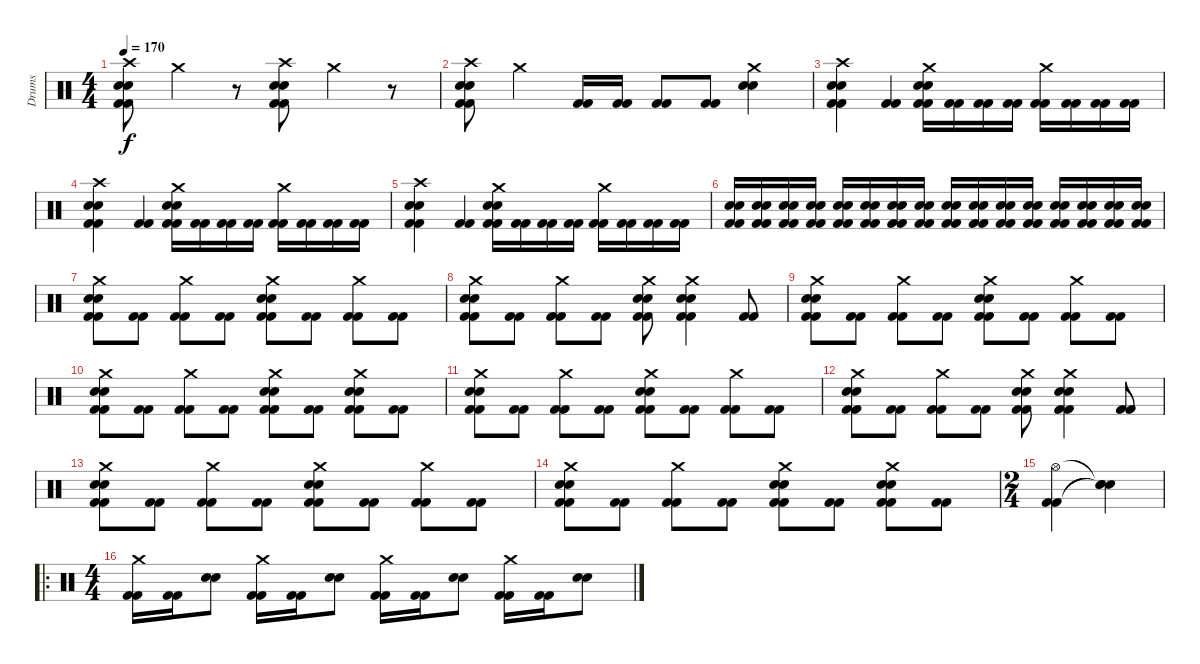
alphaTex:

\track ("Drums" "Drums") {instrument percussion}
\staff {score}
\articulation defaults
\ts (4 4)
\tempo 170
\clef neutral
\ks c
("Crash high (hit)" "Kick (hit) 2" "Kick (hit) 2" "Snare (hit) 2" "Snare (hit) 2").8{dy f} "Crash medium (hit)".4 r.8 ("Crash high (hit)" "Snare (hit) 2" "Snare (hit) 2" "Kick (hit) 2" "Kick (hit) 2").8 "Crash medium (hit)".4 r.8 |
("Snare (hit) 2" "Snare (hit) 2" "Crash high (hit)" "Kick (hit) 2" "Kick (hit) 2").8 "Crash medium (hit)".4 ("Kick (hit) 2" "Kick (hit) 2").16 ("Kick (hit) 2" "Kick (hit) 2").16 ("Kick (hit) 2" "Kick (hit) 2").8 ("Kick (hit) 2" "Kick (hit) 2").8 ("Crash medium (hit)" "Snare (hit) 2" "Snare (hit) 2").4 |
("Snare (hit) 2" "Snare (hit) 2" "Crash high (hit)" "Kick (hit) 2" "Kick (hit) 2").4 ("Kick (hit) 2" "Kick (hit) 2").4 ("Crash medium (hit)" "Snare (hit) 2" "Snare (hit) 2" "Kick (hit) 2" "Kick (hit) 2").16 ("Kick (hit) 2" "Kick (hit) 2").16 ("Kick (hit) 2" "Kick (hit) 2").16 ("Kick (hit) 2" "Kick (hit) 2").16 ("Crash medium (hit)" "Kick (hit) 2" "Kick (hit) 2").16 ("Kick (hit) 2" "Kick (hit) 2").16 ("Kick (hit) 2" "Kick (hit) 2").16 ("Kick (hit) 2" "Kick (hit) 2").16 |
("Snare (hit) 2" "Snare (hit) 2" "Crash high (hit)" "Kick (hit) 2" "Kick (hit) 2").4 ("Kick (hit) 2" "Kick (hit) 2").4 ("Crash medium (hit)" "Snare (hit) 2" "Snare (hit) 2" "Kick (hit) 2" "Kick (hit) 2").16 ("Kick (hit) 2" "Kick (hit) 2").16 ("Kick (hit) 2" "Kick (hit) 2").16 ("Kick (hit) 2" "Kick (hit) 2").16 ("Crash medium (hit)" "Kick (hit) 2" "Kick (hit) 2").16 ("Kick (hit) 2" "Kick (hit) 2").16 ("Kick (hit) 2" "Kick (hit) 2").16 ("Kick (hit) 2" "Kick (hit) 2").16 |
("Snare (hit) 2" "Snare (hit) 2" "Crash high (hit)" "Kick (hit) 2" "Kick (hit) 2").4 ("Kick (hit) 2" "Kick (hit) 2").4 ("Crash medium (hit)" "Snare (hit) 2" "Snare (hit) 2" "Kick (hit) 2" "Kick (hit) 2").16 ("Kick (hit) 2" "Kick (hit) 2").16 ("Kick (hit) 2" "Kick (hit) 2").16 ("Kick (hit) 2" "Kick (hit) 2").16 ("Crash medium (hit)" "Kick (hit) 2" "Kick (hit) 2").16 ("Kick (hit) 2" "Kick (hit) 2").16 ("Kick (hit) 2" "Kick (hit) 2").16 ("Kick (hit) 2" "Kick (hit) 2").16 |
("Snare (hit) 2" "Snare (hit) 2" "Kick (hit) 2" "Kick (hit) 2").16 ("Snare (hit) 2" "Snare (hit) 2" "Kick (hit) 2" "Kick (hit) 2").16 ("Snare (hit) 2" "Snare (hit) 2" "Kick (hit) 2" "Kick (hit) 2").16 ("Snare (hit) 2" "Snare (hit) 2" "Kick (hit) 2" "Kick (hit) 2").16 ("Snare (hit) 2" "Snare (hit) 2" "Kick (hit) 2" "Kick (hit) 2").16 ("Snare (hit) 2" "Snare (hit) 2" "Kick (hit) 2" "Kick (hit) 2").16 ("Snare (hit) 2" "Snare (hit) 2" "Kick (hit) 2" "Kick (hit) 2").16 ("Snare (hit) 2" "Snare (hit) 2" "Kick (hit) 2" "Kick (hit) 2").16 ("Snare (hit) 2" "Snare (hit) 2" "Kick (hit) 2" "Kick (hit) 2").16 ("Snare (hit) 2" "Snare (hit) 2" "Kick (hit) 2" "Kick (hit) 2").16 ("Snare (hit) 2" "Snare (hit) 2" "Kick (hit) 2" "Kick (hit) 2").16 ("Snare (hit) 2" "Snare (hit) 2" "Kick (hit) 2" "Kick (hit) 2").16 ("Snare (hit) 2" "Snare (hit) 2" "Kick (hit) 2" "Kick (hit) 2").16 ("Snare (hit) 2" "Snare (hit) 2" "Kick (hit) 2" "Kick (hit) 2").16 ("Snare (hit) 2" "Snare (hit) 2" "Kick (hit) 2" "Kick (hit) 2").16 ("Snare (hit) 2" "Snare (hit) 2" "Kick (hit) 2" "Kick (hit) 2").16 |
("Snare (hit) 2" "Crash medium (hit)" "Snare (hit) 2" "Kick (hit) 2" "Kick (hit) 2").8 ("Kick (hit) 2" "Kick (hit) 2").8 ("Crash medium (hit)" "Kick (hit) 2" "Kick (hit) 2").8 ("Kick (hit) 2" "Kick (hit) 2").8 ("Snare (hit) 2" "Crash medium (hit)" "Snare (hit) 2" "Kick (hit) 2" "Kick (hit) 2").8 ("Kick (hit) 2" "Kick (hit) 2").8 ("Crash medium (hit)" "Kick (hit) 2" "Kick (hit) 2").8 ("Kick (hit) 2" "Kick (hit) 2").8 |
("Snare (hit) 2" "Crash medium (hit)" "Snare (hit) 2" "Kick (hit) 2" "Kick (hit) 2").8 ("Kick (hit) 2" "Kick (hit) 2").8 ("Crash medium (hit)" "Kick (hit) 2" "Kick (hit) 2").8 ("Kick (hit) 2" "Kick (hit) 2").8 ("Snare (hit) 2" "Crash medium (hit)" "Snare (hit) 2" "Kick (hit) 2" "Kick (hit) 2").8 ("Crash medium (hit)" "Snare (hit) 2" "Snare (hit) 2" "Kick (hit) 2" "Kick (hit) 2").4 ("Kick (hit) 2" "Kick (hit) 2").8 |
("Snare (hit) 2" "Crash medium (hit)" "Snare (hit) 2" "Kick (hit) 2" "Kick (hit) 2").8 ("Kick (hit) 2" "Kick (hit) 2").8 ("Crash medium (hit)" "Kick (hit) 2" "Kick (hit) 2").8 ("Kick (hit) 2" "Kick (hit) 2").8 ("Snare (hit) 2" "Crash medium (hit)" "Snare (hit) 2" "Kick (hit) 2" "Kick (hit) 2").8 ("Kick (hit) 2" "Kick (hit) 2").8 ("Crash medium (hit)" "Kick (hit) 2" "Kick (hit) 2").8 ("Kick (hit) 2" "Kick (hit) 2").8 |
("Snare (hit) 2" "Crash medium (hit)" "Snare (hit) 2" "Kick (hit) 2" "Kick (hit) 2").8 ("Kick (hit) 2" "Kick (hit) 2").8 ("Crash medium (hit)" "Kick (hit) 2" "Kick (hit) 2").8 ("Kick (hit) 2" "Kick (hit) 2").8 ("Snare (hit) 2" "Crash medium (hit)" "Snare (hit) 2" "Kick (hit) 2" "Kick (hit) 2").8 ("Kick (hit) 2" "Kick (hit) 2").8 ("Snare (hit) 2" "Crash medium (hit)" "Snare (hit) 2" "Kick (hit) 2" "Kick (hit) 2").8 ("Kick (hit) 2" "Kick (hit) 2").8 |
("Snare (hit) 2" "Crash medium (hit)" "Snare (hit) 2" "Kick (hit) 2" "Kick (hit) 2").8 ("Kick (hit) 2" "Kick (hit) 2").8 ("Crash medium (hit)" "Kick (hit) 2" "Kick (hit) 2").8 ("Kick (hit) 2" "Kick (hit) 2").8 ("Snare (hit) 2" "Crash medium (hit)" "Snare (hit) 2" "Kick (hit) 2" "Kick (hit) 2").8 ("Kick (hit) 2" "Kick (hit) 2").8 ("Crash medium (hit)" "Kick (hit) 2" "Kick (hit) 2").8 ("Kick (hit) 2" "Kick (hit) 2").8 |
("Snare (hit) 2" "Crash medium (hit)" "Snare (hit) 2" "Kick (hit) 2" "Kick (hit) 2").8 ("Kick (hit) 2" "Kick (hit) 2").8 ("Crash medium (hit)" "Kick (hit) 2" "Kick (hit) 2").8 ("Kick (hit) 2" "Kick (hit) 2").8 ("Snare (hit) 2" "Crash medium (hit)" "Snare (hit) 2" "Kick (hit) 2" "Kick (hit) 2").8 ("Crash medium (hit)" "Snare (hit) 2" "Snare (hit) 2" "Kick (hit) 2" "Kick (hit) 2").4 ("Kick (hit) 2" "Kick (hit) 2").8 |
("Snare (hit) 2" "Crash medium (hit)" "Snare (hit) 2" "Kick (hit) 2" "Kick (hit) 2").8 ("Kick (hit) 2" "Kick (hit) 2").8 ("Crash medium (hit)" "Kick (hit) 2" "Kick (hit) 2").8 ("Kick (hit) 2" "Kick (hit) 2").8 ("Snare (hit) 2" "Crash medium (hit)" "Snare (hit) 2" "Kick (hit) 2" "Kick (hit) 2").8 ("Kick (hit) 2" "Kick (hit) 2").8 ("Crash medium (hit)" "Kick (hit) 2" "Kick (hit) 2").8 ("Kick (hit) 2" "Kick (hit) 2").8 |
("Snare (hit) 2" "Crash medium (hit)" "Snare (hit) 2" "Kick (hit) 2" "Kick (hit) 2").8 ("Kick (hit) 2" "Kick (hit) 2").8 ("Crash medium (hit)" "Kick (hit) 2" "Kick (hit) 2").8 ("Kick (hit) 2" "Kick (hit) 2").8 ("Snare (hit) 2" "Crash medium (hit)" "Snare (hit) 2" "Kick (hit) 2" "Kick (hit) 2").8 ("Kick (hit) 2" "Kick (hit) 2").8 ("Snare (hit) 2" "Crash medium (hit)" "Snare (hit) 2" "Kick (hit) 2" "Kick (hit) 2").8 ("Kick (hit) 2" "Kick (hit) 2").8 |
\ts (2 4)
("Hi-Hat (open)" "Kick (hit) 2" "Kick (hit) 2").4 ("Snare (hit)"{t} "Snare (hit)"{t} "Snare (hit)"{t}).4 |
\ro
\ts (4 4)
("Crash medium (hit)" "Kick (hit) 2" "Kick (hit) 2").16 ("Kick (hit) 2" "Kick (hit) 2").16 ("Snare (hit) 2" "Snare (hit) 2").8 ("Crash medium (hit)" "Kick (hit) 2" "Kick (hit) 2").16 ("Kick (hit) 2" "Kick (hit) 2").16 ("Snare (hit) 2" "Snare (hit) 2").8 ("Crash medium (hit)" "Kick (hit) 2" "Kick (hit) 2").16 ("Kick (hit) 2" "Kick (hit) 2").16 ("Snare (hit) 2" "Snare (hit) 2").8 ("Crash medium (hit)" "Kick (hit) 2" "Kick (hit) 2").16 ("Kick (hit) 2" "Kick (hit) 2").16 ("Snare (hit) 2" "Snare (hit) 2").8
